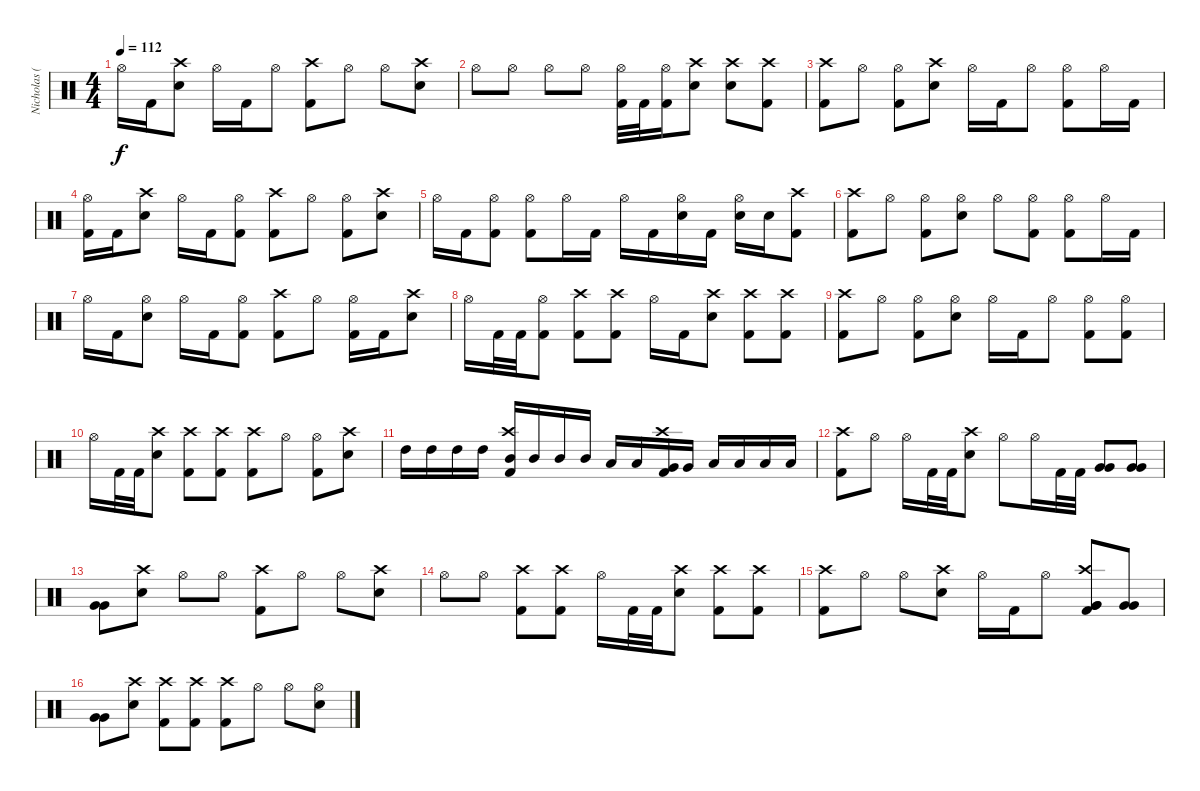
\track ("Nicholas (Drums)" "Nicholas (") {instrument percussion}
\staff {score}
\articulation defaults
\ts (4 4)
\tempo 112
\clef neutral
\ks c "Hi-Hat (open)".16{dy f} "Kick (hit) 2".16
("Crash high (hit)" "Electric Snare (hit)").8 "Hi-Hat (open)".16 "Kick (hit) 2".16 "Hi-Hat (open)".8 ("Crash high (hit)" "Kick (hit) 2").8 "Hi-Hat (open)".8 "Hi-Hat (open)".8 ("Crash high (hit)" "Electric Snare (hit)").8 |
"Hi-Hat (open)".8 "Hi-Hat (open)".8 "Hi-Hat (open)".8 "Hi-Hat (open)".8 ("Hi-Hat (open)" "Kick (hit) 2").32 "Kick (hit) 2".32 ("Hi-Hat (open)" "Kick (hit) 2").16 ("Crash high (hit)" "Electric Snare (hit)").8 ("Crash high (hit)" "Electric Snare (hit)").8 ("Crash high (hit)" "Kick (hit) 2").8 |
("Crash high (hit)" "Kick (hit) 2").8 "Hi-Hat (open)".8 ("Hi-Hat (open)" "Kick (hit) 2").8 ("Crash high (hit)" "Electric Snare (hit)").8 "Hi-Hat (open)".16 "Kick (hit) 2".16 "Hi-Hat (open)".8 ("Hi-Hat (open)" "Kick (hit) 2").8 "Hi-Hat (open)".16 "Kick (hit) 2".16 |
("Hi-Hat (open)" "Kick (hit) 2").16 "Kick (hit) 2".16 ("Crash high (hit)" "Electric Snare (hit)").8 "Hi-Hat (open)".16 "Kick (hit) 2".16 ("Hi-Hat (open)" "Kick (hit) 2").8 ("Crash high (hit)" "Kick (hit) 2").8 "Hi-Hat (open)".8 ("Hi-Hat (open)" "Kick (hit) 2").8 ("Crash high (hit)" "Electric Snare (hit)").8 |
"Hi-Hat (open)".16 "Kick (hit) 2".16 ("Hi-Hat (open)" "Kick (hit) 2").8 ("Hi-Hat (open)" "Kick (hit) 2").8 "Hi-Hat (open)".16 "Kick (hit) 2".16 "Hi-Hat (open)".16 "Kick (hit) 2".16 ("Hi-Hat (open)" "Electric Snare (hit)").16 "Kick (hit) 2".16 ("Hi-Hat (open)" "Electric Snare (hit)").16 "Electric Snare (hit)".16 ("Crash high (hit)" "Kick (hit) 2").8 |
("Crash high (hit)" "Kick (hit) 2").8 "Hi-Hat (open)".8 ("Hi-Hat (open)" "Kick (hit) 2").8 ("Hi-Hat (open)" "Electric Snare (hit)").8 "Hi-Hat (open)".8 ("Hi-Hat (open)" "Kick (hit) 2").8 ("Hi-Hat (open)" "Kick (hit) 2").8 "Hi-Hat (open)".16 "Kick (hit) 2".16 |
"Hi-Hat (open)".16 "Kick (hit) 2".16 ("Hi-Hat (open)" "Electric Snare (hit)").8 "Hi-Hat (open)".16 "Kick (hit) 2".16 ("Hi-Hat (open)" "Kick (hit) 2").8 ("Crash high (hit)" "Kick (hit) 2").8 "Hi-Hat (open)".8 ("Hi-Hat (open)" "Kick (hit) 2").16 "Kick (hit) 2".16 ("Crash high (hit)" "Electric Snare (hit)").8 |
"Hi-Hat (open)".16 "Kick (hit) 2".32 "Kick (hit) 2".32 ("Hi-Hat (open)" "Kick (hit) 2").8 ("Crash high (hit)" "Kick (hit) 2").8 ("Crash high (hit)" "Kick (hit) 2").8 "Hi-Hat (open)".16 "Kick (hit) 2".16 ("Crash high (hit)" "Electric Snare (hit)").8 ("Crash high (hit)" "Kick (hit) 2").8 ("Crash high (hit)" "Kick (hit) 2").8 |
("Crash high (hit)" "Kick (hit) 2").8 "Hi-Hat (open)".8 ("Hi-Hat (open)" "Kick (hit) 2").8 ("Hi-Hat (open)" "Electric Snare (hit)").8 "Hi-Hat (open)".16 "Kick (hit) 2".16 "Hi-Hat (open)".8 ("Hi-Hat (open)" "Kick (hit) 2").8 ("Hi-Hat (open)" "Kick (hit) 2").8 |
"Hi-Hat (open)".16 "Kick (hit) 2".32 "Kick (hit) 2".32 ("Crash high (hit)" "Electric Snare (hit)").8 ("Crash high (hit)" "Kick (hit) 2").8 ("Crash high (hit)" "Kick (hit) 2").8 ("Crash high (hit)" "Kick (hit) 2").8 "Hi-Hat (open)".8 ("Hi-Hat (open)" "Kick (hit) 2").8 ("Crash high (hit)" "Electric Snare (hit)").8 |
"High Tom (hit)".16 "High Tom (hit)".16 "High Tom (hit)".16 "High Tom (hit)".16 ("Crash high (hit)" "Mid Tom (hit)" "Kick (hit) 2").16 "Mid Tom (hit)".16 "Mid Tom (hit)".16 "Mid Tom (hit)".16 "Low Tom (hit)".16 "Low Tom (hit)".16 ("Crash high (hit)" "Very Low Tom (hit)" "Kick (hit) 2").16 "Very Low Tom (hit)".16 "Low Floor Tom (hit)".16 "Low Floor Tom (hit)".16 "Low Floor Tom (hit)".16 "Low Floor Tom (hit)".16 |
("Crash high (hit)" "Kick (hit) 2").8 "Hi-Hat (open)".8 "Hi-Hat (open)".16 "Kick (hit) 2".32 "Kick (hit) 2".32 ("Crash high (hit)" "Electric Snare (hit)").8 "Hi-Hat (open)".8 "Hi-Hat (open)".16 "Kick (hit) 2".32 "Kick (hit) 2".32 ("Very Low Tom (hit)" "Very Low Tom (hit)").8 ("Very Low Tom (hit)" "Very Low Tom (hit)").8 |
("Very Low Tom (hit)" "Very Low Tom (hit)").8 ("Crash high (hit)" "Electric Snare (hit)").8 "Hi-Hat (open)".8 "Hi-Hat (open)".8 ("Crash high (hit)" "Kick (hit) 2").8 "Hi-Hat (open)".8 "Hi-Hat (open)".8 ("Crash high (hit)" "Electric Snare (hit)").8 |
"Hi-Hat (open)".8 "Hi-Hat (open)".8 ("Crash high (hit)" "Kick (hit) 2").8 ("Crash high (hit)" "Kick (hit) 2").8 "Hi-Hat (open)".16 "Kick (hit) 2".32 "Kick (hit) 2".32 ("Crash high (hit)" "Electric Snare (hit)").8 ("Crash high (hit)" "Kick (hit) 2").8 ("Crash high (hit)" "Kick (hit) 2").8 |
("Crash high (hit)" "Kick (hit) 2").8 "Hi-Hat (open)".8 "Hi-Hat (open)".8 ("Crash high (hit)" "Electric Snare (hit)").8 "Hi-Hat (open)".16 "Kick (hit) 2".16 "Hi-Hat (open)".8 ("Crash high (hit)" "Kick (hit) 2" "Very Low Tom (hit)" "Very Low Tom (hit)").8 ("Very Low Tom (hit)" "Very Low Tom (hit)").8 |
("Very Low Tom (hit)" "Very Low Tom (hit)").8 ("Crash high (hit)" "Electric Snare (hit)").8 ("Crash high (hit)" "Kick (hit) 2").8 ("Crash high (hit)" "Kick (hit) 2").8 ("Crash high (hit)" "Kick (hit) 2").8 "Hi-Hat (open)".8 "Hi-Hat (open)".8 ("Hi-Hat (open)" "Electric Snare (hit)").8
